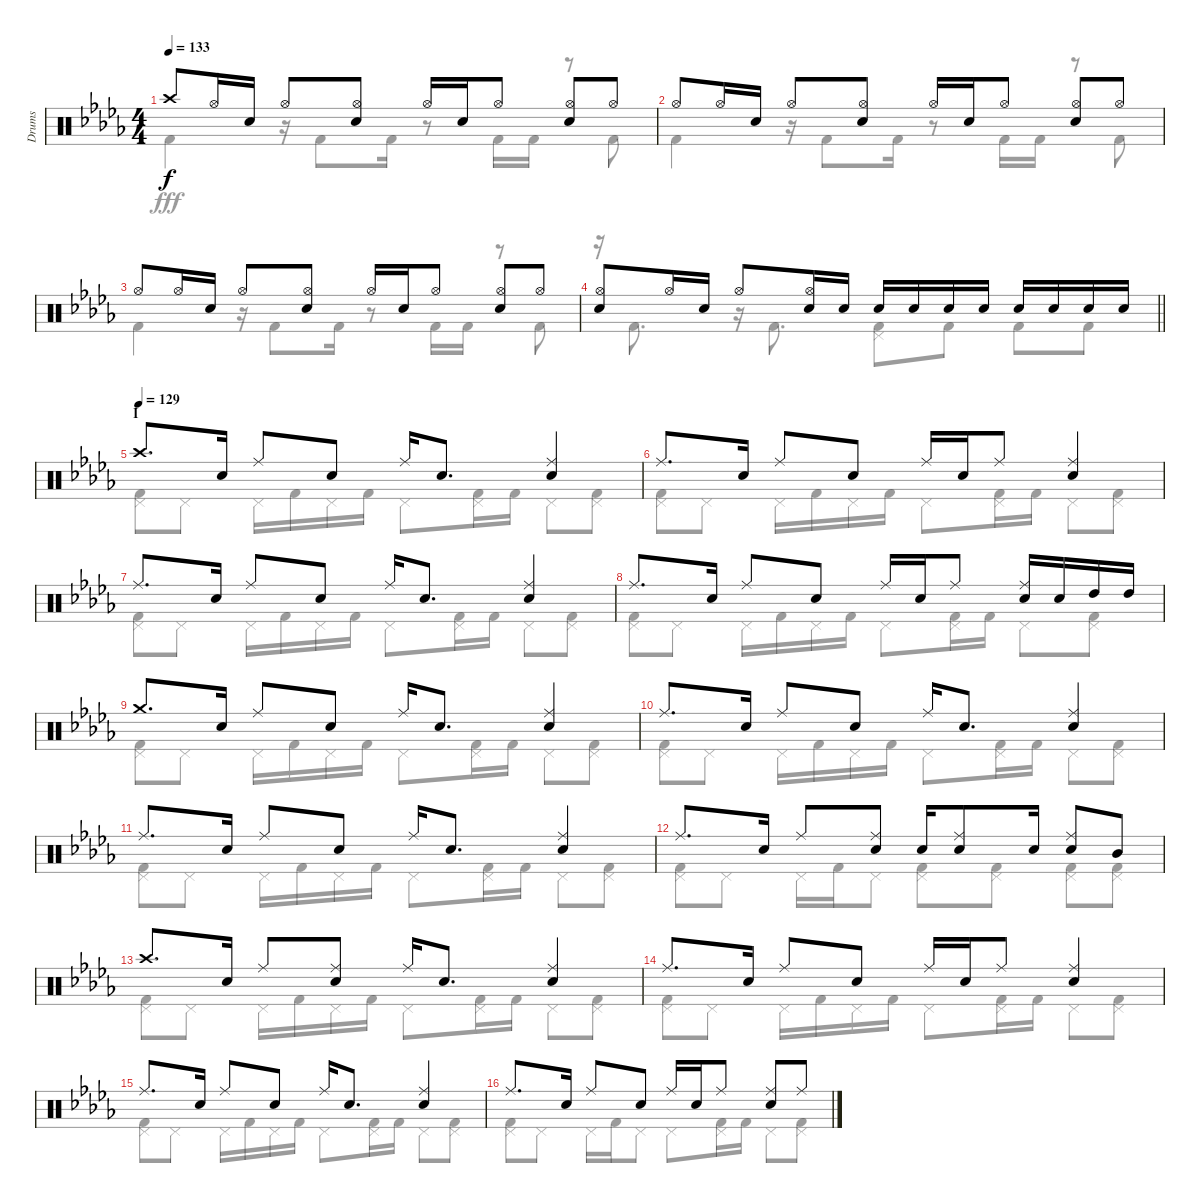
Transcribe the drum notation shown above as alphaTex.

\track ("Drums" "Drums") {instrument percussion}
\staff {score}
\articulation defaults
\voice
\ts (4 4)
\tempo 133
\clef neutral
\ks db "Crash high (hit)".8{dy f} "Hi-Hat (open)".16 "Snare (hit) 2".16 "Hi-Hat (open)".8
("Hi-Hat (open)" "Snare (hit) 2").8 "Hi-Hat (open)".16 "Snare (hit) 2".16 "Hi-Hat (open)".8 ("Hi-Hat (open)" "Snare (hit) 2").8 "Hi-Hat (open)".8 |
"Hi-Hat (open)".8 "Hi-Hat (open)".16 "Snare (hit) 2".16 "Hi-Hat (open)".8 ("Hi-Hat (open)" "Snare (hit) 2").8 "Hi-Hat (open)".16 "Snare (hit) 2".16 "Hi-Hat (open)".8 ("Hi-Hat (open)" "Snare (hit) 2").8 "Hi-Hat (open)".8 |
"Hi-Hat (open)".8 "Hi-Hat (open)".16 "Snare (hit) 2".16 "Hi-Hat (open)".8 ("Hi-Hat (open)" "Snare (hit) 2").8 "Hi-Hat (open)".16 "Snare (hit) 2".16 "Hi-Hat (open)".8 ("Hi-Hat (open)" "Snare (hit) 2").8 "Hi-Hat (open)".8 |
\barLineRight lightlight
("Hi-Hat (open)" "Snare (hit) 2").8 "Hi-Hat (open)".16 "Snare (hit) 2".16 "Hi-Hat (open)".8 ("Hi-Hat (open)" "Snare (hit) 2").16 "Snare (hit) 2".16 "Snare (hit) 2".16 "Snare (hit) 2".16 "Snare (hit) 2".16 "Snare (hit) 2".16 "Snare (hit) 2".16 "Snare (hit) 2".16 "Snare (hit) 2".16 "Snare (hit) 2".16 |
\section ("" "I")
\tempo (129)
"Crash high (hit)".8{d} "Snare (hit) 2".16 "Ride (middle)".8 "Snare (hit) 2".8 "Ride (middle)".16 "Snare (hit) 2".8{d} ("Ride (middle)" "Snare (hit) 2").4 |
"Ride (middle)".8{d} "Snare (hit) 2".16 "Ride (middle)".8 "Snare (hit) 2".8 "Ride (middle)".16 "Snare (hit) 2".16 "Ride (middle)".8 ("Ride (middle)" "Snare (hit) 2").4 |
"Ride (middle)".8{d} "Snare (hit) 2".16 "Ride (middle)".8 "Snare (hit) 2".8 "Ride (middle)".16 "Snare (hit) 2".8{d} ("Ride (middle)" "Snare (hit) 2").4 |
"Ride (middle)".8{d} "Snare (hit) 2".16 "Ride (middle)".8 "Snare (hit) 2".8 "Ride (middle)".16 "Snare (hit) 2".16 "Ride (middle)".8 ("Ride (middle)" "Snare (hit) 2").16 "Snare (hit) 2".16 "High Tom (hit)".16 "High Tom (hit)".16 |
"Crash medium (hit)".8{d} "Snare (hit) 2".16 "Ride (middle)".8 "Snare (hit) 2".8 "Ride (middle)".16 "Snare (hit) 2".8{d} ("Ride (middle)" "Snare (hit) 2").4 |
"Ride (middle)".8{d} "Snare (hit) 2".16 "Ride (middle)".8 "Snare (hit) 2".8 "Ride (middle)".16 "Snare (hit) 2".8{d} ("Ride (middle)" "Snare (hit) 2").4 |
"Ride (middle)".8{d} "Snare (hit) 2".16 "Ride (middle)".8 "Snare (hit) 2".8 "Ride (middle)".16 "Snare (hit) 2".8{d} ("Ride (middle)" "Snare (hit) 2").4 |
"Ride (middle)".8{d} "Snare (hit) 2".16 "Ride (middle)".8 ("Ride (middle)" "Snare (hit) 2").8 "Snare (hit) 2".16 ("Ride (middle)" "Snare (hit) 2").8 "Snare (hit) 2".16 ("Ride (middle)" "Snare (hit) 2").8 "Mid Tom (hit)".8 |
"Crash high (hit)".8{d} "Snare (hit) 2".16 "Ride (middle)".8 ("Ride (middle)" "Snare (hit) 2").8 "Ride (middle)".16 "Snare (hit) 2".8{d} ("Ride (middle)" "Snare (hit) 2").4 |
"Ride (middle)".8{d} "Snare (hit) 2".16 "Ride (middle)".8 "Snare (hit) 2".8 "Ride (middle)".16 "Snare (hit) 2".16 "Ride (middle)".8 ("Ride (middle)" "Snare (hit) 2").4 |
"Ride (middle)".8{d} "Snare (hit) 2".16 "Ride (middle)".8 "Snare (hit) 2".8 "Ride (middle)".16 "Snare (hit) 2".8{d} ("Ride (middle)" "Snare (hit) 2").4 |
"Ride (middle)".8{d} "Snare (hit) 2".16 "Ride (middle)".8 "Snare (hit) 2".8 "Ride (middle)".16 "Snare (hit) 2".16 "Ride (middle)".8 ("Ride (middle)" "Snare (hit) 2").8 "Ride (middle)".8
\voice
\clef neutral
\ottava regular
\simile none
\ks db "Kick (hit) 2".4{dy fff}
r.16 "Kick (hit) 2".8 "Kick (hit) 2".16 r.8 "Kick (hit) 2".16 "Kick (hit) 2".16 r.8 "Kick (hit) 2".8 |
"Kick (hit) 2".4 r.16 "Kick (hit) 2".8 "Kick (hit) 2".16 r.8 "Kick (hit) 2".16 "Kick (hit) 2".16 r.8 "Kick (hit) 2".8 |
"Kick (hit) 2".4 r.16 "Kick (hit) 2".8 "Kick (hit) 2".16 r.8 "Kick (hit) 2".16 "Kick (hit) 2".16 r.8 "Kick (hit) 2".8 |
\barLineRight lightlight
r.16 "Kick (hit) 2".8{d} r.16 "Kick (hit) 2".8{d} ("Pedal Hi-Hat (hit)" "Kick (hit) 2").8 "Kick (hit) 2".8 "Kick (hit) 2".8 "Kick (hit) 2".8 |
("Pedal Hi-Hat (hit)" "Kick (hit) 2").8 "Pedal Hi-Hat (hit)".8 "Pedal Hi-Hat (hit)".16 "Kick (hit) 2".16 "Pedal Hi-Hat (hit)".16 "Kick (hit) 2".16 "Pedal Hi-Hat (hit)".8 ("Pedal Hi-Hat (hit)" "Kick (hit) 2").16 "Kick (hit) 2".16 "Pedal Hi-Hat (hit)".8 ("Pedal Hi-Hat (hit)" "Kick (hit) 2").8 |
("Pedal Hi-Hat (hit)" "Kick (hit) 2").8 "Pedal Hi-Hat (hit)".8 "Pedal Hi-Hat (hit)".16 "Kick (hit) 2".16 "Pedal Hi-Hat (hit)".16 "Kick (hit) 2".16 "Pedal Hi-Hat (hit)".8 ("Pedal Hi-Hat (hit)" "Kick (hit) 2").16 "Kick (hit) 2".16 "Pedal Hi-Hat (hit)".8 ("Pedal Hi-Hat (hit)" "Kick (hit) 2").8 |
("Pedal Hi-Hat (hit)" "Kick (hit) 2").8 "Pedal Hi-Hat (hit)".8 "Pedal Hi-Hat (hit)".16 "Kick (hit) 2".16 "Pedal Hi-Hat (hit)".16 "Kick (hit) 2".16 "Pedal Hi-Hat (hit)".8 ("Pedal Hi-Hat (hit)" "Kick (hit) 2").16 "Kick (hit) 2".16 "Pedal Hi-Hat (hit)".8 ("Pedal Hi-Hat (hit)" "Kick (hit) 2").8 |
("Pedal Hi-Hat (hit)" "Kick (hit) 2").8 "Pedal Hi-Hat (hit)".8 "Pedal Hi-Hat (hit)".16 "Kick (hit) 2".16 "Pedal Hi-Hat (hit)".16 "Kick (hit) 2".16 "Pedal Hi-Hat (hit)".8 ("Pedal Hi-Hat (hit)" "Kick (hit) 2").16 "Kick (hit) 2".16 "Pedal Hi-Hat (hit)".8 ("Pedal Hi-Hat (hit)" "Kick (hit) 2").8 |
("Pedal Hi-Hat (hit)" "Kick (hit) 2").8 "Pedal Hi-Hat (hit)".8 "Pedal Hi-Hat (hit)".16 "Kick (hit) 2".16 "Pedal Hi-Hat (hit)".16 "Kick (hit) 2".16 "Pedal Hi-Hat (hit)".8 ("Pedal Hi-Hat (hit)" "Kick (hit) 2").16 "Kick (hit) 2".16 "Pedal Hi-Hat (hit)".8 ("Pedal Hi-Hat (hit)" "Kick (hit) 2").8 |
("Pedal Hi-Hat (hit)" "Kick (hit) 2").8 "Pedal Hi-Hat (hit)".8 "Pedal Hi-Hat (hit)".16 "Kick (hit) 2".16 "Pedal Hi-Hat (hit)".16 "Kick (hit) 2".16 "Pedal Hi-Hat (hit)".8 ("Pedal Hi-Hat (hit)" "Kick (hit) 2").16 "Kick (hit) 2".16 "Pedal Hi-Hat (hit)".8 ("Pedal Hi-Hat (hit)" "Kick (hit) 2").8 |
("Pedal Hi-Hat (hit)" "Kick (hit) 2").8 "Pedal Hi-Hat (hit)".8 "Pedal Hi-Hat (hit)".16 "Kick (hit) 2".16 "Pedal Hi-Hat (hit)".16 "Kick (hit) 2".16 "Pedal Hi-Hat (hit)".8 ("Pedal Hi-Hat (hit)" "Kick (hit) 2").16 "Kick (hit) 2".16 "Pedal Hi-Hat (hit)".8 ("Pedal Hi-Hat (hit)" "Kick (hit) 2").8 |
("Pedal Hi-Hat (hit)" "Kick (hit) 2").8 "Pedal Hi-Hat (hit)".8 "Pedal Hi-Hat (hit)".16 "Kick (hit) 2".16 "Pedal Hi-Hat (hit)".8 ("Pedal Hi-Hat (hit)" "Kick (hit) 2").8 ("Pedal Hi-Hat (hit)" "Kick (hit) 2").8 ("Pedal Hi-Hat (hit)" "Kick (hit) 2").8 ("Pedal Hi-Hat (hit)" "Kick (hit) 2").8 |
("Pedal Hi-Hat (hit)" "Kick (hit) 2").8 "Pedal Hi-Hat (hit)".8 "Pedal Hi-Hat (hit)".16 "Kick (hit) 2".16 "Pedal Hi-Hat (hit)".16 "Kick (hit) 2".16 "Pedal Hi-Hat (hit)".8 ("Pedal Hi-Hat (hit)" "Kick (hit) 2").16 "Kick (hit) 2".16 "Pedal Hi-Hat (hit)".8 ("Pedal Hi-Hat (hit)" "Kick (hit) 2").8 |
("Pedal Hi-Hat (hit)" "Kick (hit) 2").8 "Pedal Hi-Hat (hit)".8 "Pedal Hi-Hat (hit)".16 "Kick (hit) 2".16 "Pedal Hi-Hat (hit)".16 "Kick (hit) 2".16 "Pedal Hi-Hat (hit)".8 ("Pedal Hi-Hat (hit)" "Kick (hit) 2").16 "Kick (hit) 2".16 "Pedal Hi-Hat (hit)".8 ("Pedal Hi-Hat (hit)" "Kick (hit) 2").8 |
("Pedal Hi-Hat (hit)" "Kick (hit) 2").8 "Pedal Hi-Hat (hit)".8 "Pedal Hi-Hat (hit)".16 "Kick (hit) 2".16 "Pedal Hi-Hat (hit)".16 "Kick (hit) 2".16 "Pedal Hi-Hat (hit)".8 ("Pedal Hi-Hat (hit)" "Kick (hit) 2").16 "Kick (hit) 2".16 "Pedal Hi-Hat (hit)".8 ("Pedal Hi-Hat (hit)" "Kick (hit) 2").8 |
("Pedal Hi-Hat (hit)" "Kick (hit) 2").8 "Pedal Hi-Hat (hit)".8 "Pedal Hi-Hat (hit)".16 "Kick (hit) 2".16 "Pedal Hi-Hat (hit)".8 "Pedal Hi-Hat (hit)".8 ("Pedal Hi-Hat (hit)" "Kick (hit) 2").16 "Kick (hit) 2".16 "Pedal Hi-Hat (hit)".8 ("Pedal Hi-Hat (hit)" "Kick (hit) 2").8
